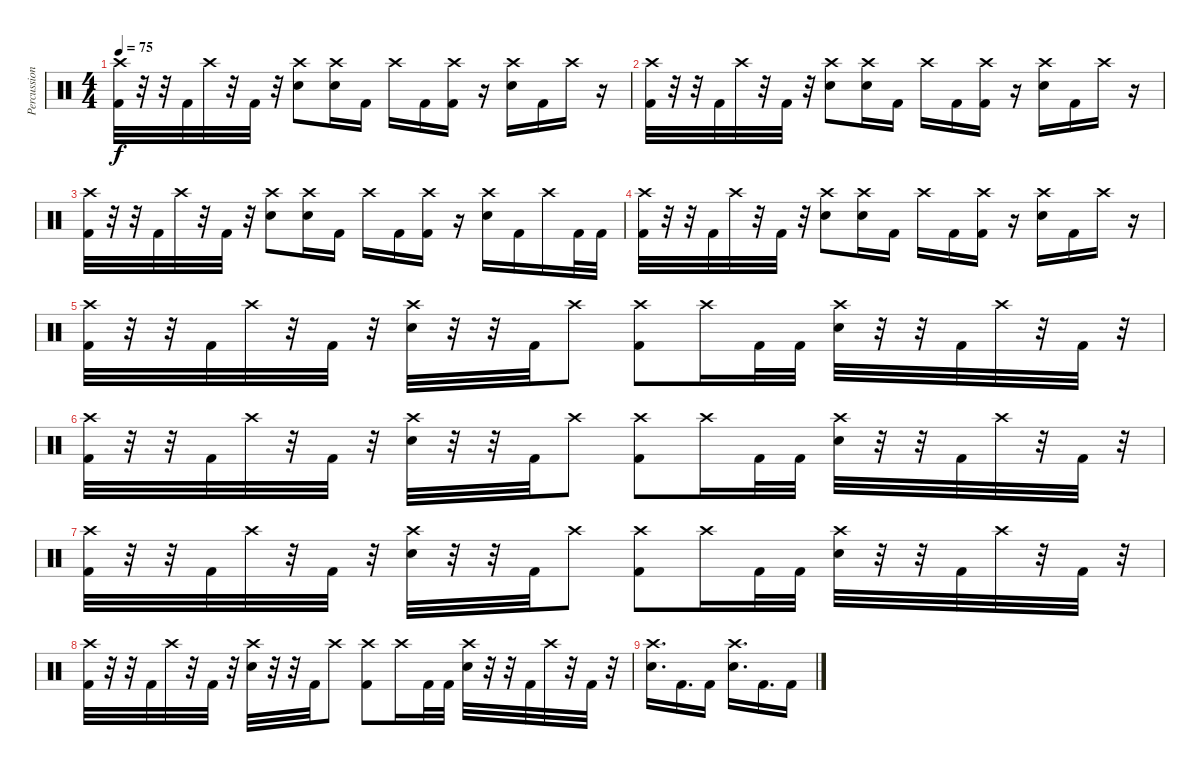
\track ("Percussion" "Percussion") {instrument percussion}
\staff {score}
\articulation defaults
\ts (4 4)
\tempo 75
\clef neutral
\ks c
("Crash high (hit)" "Kick (hit) 2").32{dy f} r.32 r.32 "Kick (hit) 2".32 "Crash high (hit)".32 r.32 "Kick (hit) 2".32 r.32 ("Crash high (hit)" "Electric Snare (hit)").8 ("Crash high (hit)" "Electric Snare (hit)").16 "Kick (hit) 2".16 "Crash high (hit)".16 "Kick (hit) 2".16 ("Crash high (hit)" "Kick (hit) 2").16 r.16 ("Crash high (hit)" "Electric Snare (hit)").16 "Kick (hit) 2".16 "Crash high (hit)".16 r.16 |
("Crash high (hit)" "Kick (hit) 2").32 r.32 r.32 "Kick (hit) 2".32 "Crash high (hit)".32 r.32 "Kick (hit) 2".32 r.32 ("Crash high (hit)" "Electric Snare (hit)").8 ("Crash high (hit)" "Electric Snare (hit)").16 "Kick (hit) 2".16 "Crash high (hit)".16 "Kick (hit) 2".16 ("Crash high (hit)" "Kick (hit) 2").16 r.16 ("Crash high (hit)" "Electric Snare (hit)").16 "Kick (hit) 2".16 "Crash high (hit)".16 r.16 |
("Crash high (hit)" "Kick (hit) 2").32 r.32 r.32 "Kick (hit) 2".32 "Crash high (hit)".32 r.32 "Kick (hit) 2".32 r.32 ("Crash high (hit)" "Electric Snare (hit)").8 ("Crash high (hit)" "Electric Snare (hit)").16 "Kick (hit) 2".16 "Crash high (hit)".16 "Kick (hit) 2".16 ("Crash high (hit)" "Kick (hit) 2").16 r.16 ("Crash high (hit)" "Electric Snare (hit)").16 "Kick (hit) 2".16 "Crash high (hit)".16 "Kick (hit) 2".32 "Kick (hit) 2".32 |
("Crash high (hit)" "Kick (hit) 2").32 r.32 r.32 "Kick (hit) 2".32 "Crash high (hit)".32 r.32 "Kick (hit) 2".32 r.32 ("Crash high (hit)" "Electric Snare (hit)").8 ("Crash high (hit)" "Electric Snare (hit)").16 "Kick (hit) 2".16 "Crash high (hit)".16 "Kick (hit) 2".16 ("Crash high (hit)" "Kick (hit) 2").16 r.16 ("Crash high (hit)" "Electric Snare (hit)").16 "Kick (hit) 2".16 "Crash high (hit)".16 r.16 |
("Crash high (hit)" "Kick (hit) 2").32 r.32 r.32 "Kick (hit) 2".32 "Crash high (hit)".32 r.32 "Kick (hit) 2".32 r.32 ("Crash high (hit)" "Electric Snare (hit)").32 r.32 r.32 "Kick (hit) 2".32 "Crash high (hit)".8 ("Crash high (hit)" "Kick (hit) 2").8 "Crash high (hit)".16 "Kick (hit) 2".32 "Kick (hit) 2".32 ("Crash high (hit)" "Electric Snare (hit)").32 r.32 r.32 "Kick (hit) 2".32 "Crash high (hit)".32 r.32 "Kick (hit) 2".32 r.32 |
("Crash high (hit)" "Kick (hit) 2").32 r.32 r.32 "Kick (hit) 2".32 "Crash high (hit)".32 r.32 "Kick (hit) 2".32 r.32 ("Crash high (hit)" "Electric Snare (hit)").32 r.32 r.32 "Kick (hit) 2".32 "Crash high (hit)".8 ("Crash high (hit)" "Kick (hit) 2").8 "Crash high (hit)".16 "Kick (hit) 2".32 "Kick (hit) 2".32 ("Crash high (hit)" "Electric Snare (hit)").32 r.32 r.32 "Kick (hit) 2".32 "Crash high (hit)".32 r.32 "Kick (hit) 2".32 r.32 |
("Crash high (hit)" "Kick (hit) 2").32 r.32 r.32 "Kick (hit) 2".32 "Crash high (hit)".32 r.32 "Kick (hit) 2".32 r.32 ("Crash high (hit)" "Electric Snare (hit)").32 r.32 r.32 "Kick (hit) 2".32 "Crash high (hit)".8 ("Crash high (hit)" "Kick (hit) 2").8 "Crash high (hit)".16 "Kick (hit) 2".32 "Kick (hit) 2".32 ("Crash high (hit)" "Electric Snare (hit)").32 r.32 r.32 "Kick (hit) 2".32 "Crash high (hit)".32 r.32 "Kick (hit) 2".32 r.32 |
("Crash high (hit)" "Kick (hit) 2").32 r.32 r.32 "Kick (hit) 2".32 "Crash high (hit)".32 r.32 "Kick (hit) 2".32 r.32 ("Crash high (hit)" "Electric Snare (hit)").32 r.32 r.32 "Kick (hit) 2".32 "Crash high (hit)".8 ("Crash high (hit)" "Kick (hit) 2").8 "Crash high (hit)".16 "Kick (hit) 2".32 "Kick (hit) 2".32 ("Crash high (hit)" "Electric Snare (hit)").32 r.32 r.32 "Kick (hit) 2".32 "Crash high (hit)".32 r.32 "Kick (hit) 2".32 r.32 |
("Crash high (hit)" "Electric Snare (hit)").16{d} "Kick (hit) 2".16{d} "Kick (hit) 2".16 ("Crash high (hit)" "Electric Snare (hit)").16{d} "Kick (hit) 2".16{d} "Kick (hit) 2".16
